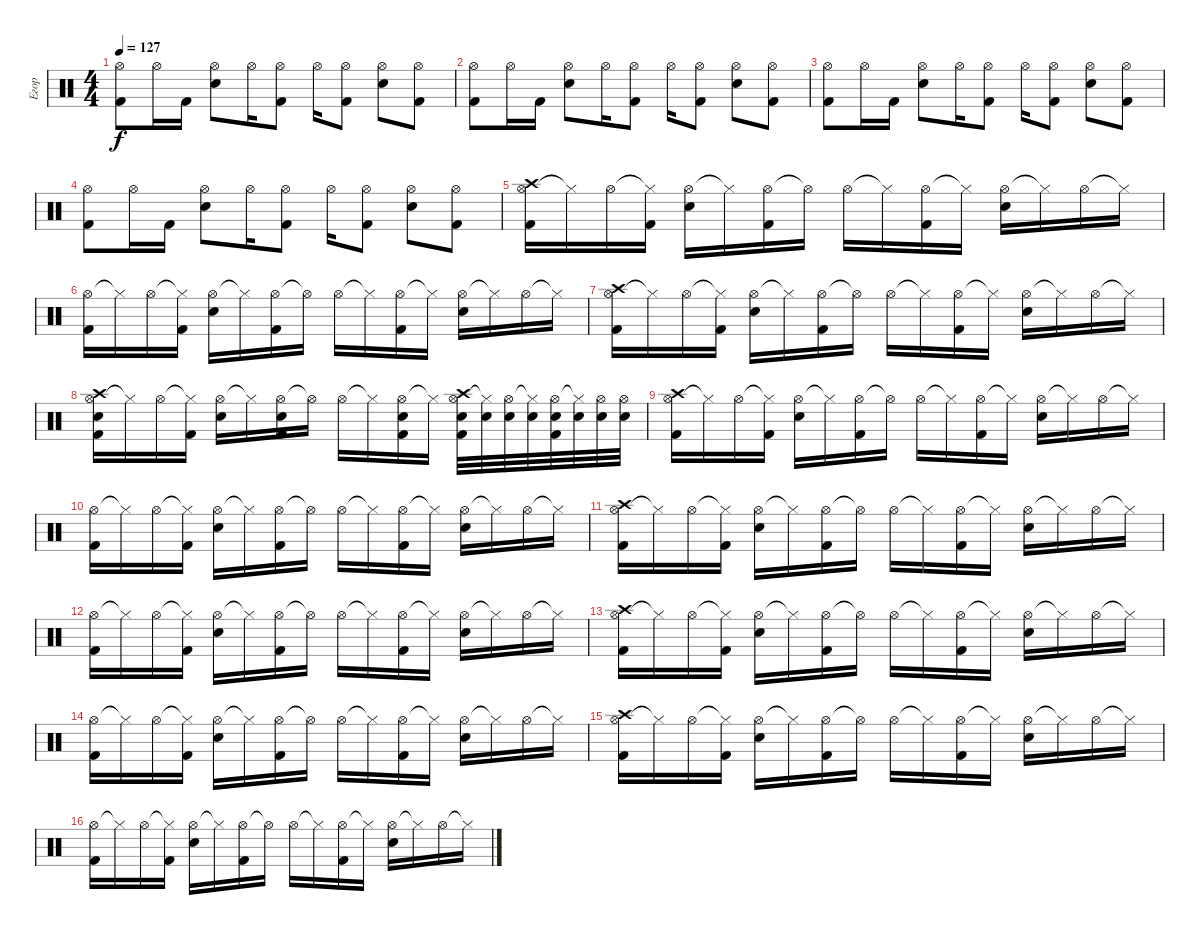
\track ("Егор" "Егор") {instrument percussion}
\staff {score}
\articulation defaults
\ts (4 4)
\tempo 127
\clef neutral
\ks c
("Hi-Hat (open)" "Kick (hit) 2").8{dy f} "Hi-Hat (open)".16 "Kick (hit) 2".16 ("Hi-Hat (open)" "Electric Snare (hit)").8 "Hi-Hat (open)".16 ("Hi-Hat (open)" "Kick (hit) 2").8 "Hi-Hat (open)".16 ("Hi-Hat (open)" "Kick (hit) 2").8 ("Hi-Hat (open)" "Electric Snare (hit)").8 ("Hi-Hat (open)" "Kick (hit) 2").8 |
("Hi-Hat (open)" "Kick (hit) 2").8 "Hi-Hat (open)".16 "Kick (hit) 2".16 ("Hi-Hat (open)" "Electric Snare (hit)").8 "Hi-Hat (open)".16 ("Hi-Hat (open)" "Kick (hit) 2").8 "Hi-Hat (open)".16 ("Hi-Hat (open)" "Kick (hit) 2").8 ("Hi-Hat (open)" "Electric Snare (hit)").8 ("Hi-Hat (open)" "Kick (hit) 2").8 |
("Hi-Hat (open)" "Kick (hit) 2").8 "Hi-Hat (open)".16 "Kick (hit) 2".16 ("Hi-Hat (open)" "Electric Snare (hit)").8 "Hi-Hat (open)".16 ("Hi-Hat (open)" "Kick (hit) 2").8 "Hi-Hat (open)".16 ("Hi-Hat (open)" "Kick (hit) 2").8 ("Hi-Hat (open)" "Electric Snare (hit)").8 ("Hi-Hat (open)" "Kick (hit) 2").8 |
("Hi-Hat (open)" "Kick (hit) 2").8 "Hi-Hat (open)".16 "Kick (hit) 2".16 ("Hi-Hat (open)" "Electric Snare (hit)").8 "Hi-Hat (open)".16 ("Hi-Hat (open)" "Kick (hit) 2").8 "Hi-Hat (open)".16 ("Hi-Hat (open)" "Kick (hit) 2").8 ("Hi-Hat (open)" "Electric Snare (hit)").8 ("Hi-Hat (open)" "Kick (hit) 2").8 |
("Hi-Hat (open)" "Crash high (hit)" "Kick (hit) 2").16 "Hi-Hat (closed)"{t}.16 "Hi-Hat (open)".16 ("Hi-Hat (closed)"{t} "Kick (hit) 2").16 ("Hi-Hat (open)" "Electric Snare (hit)").16 "Hi-Hat (closed)"{t}.16 ("Hi-Hat (open)" "Kick (hit) 2").16 "Hi-Hat (open)"{t}.16 "Hi-Hat (open)".16 "Hi-Hat (closed)"{t}.16 ("Hi-Hat (open)" "Kick (hit) 2").16 "Hi-Hat (closed)"{t}.16 ("Hi-Hat (open)" "Electric Snare (hit)").16 "Hi-Hat (closed)"{t}.16 "Hi-Hat (open)".16 "Hi-Hat (closed)"{t}.16 |
("Hi-Hat (open)" "Kick (hit) 2").16 "Hi-Hat (closed)"{t}.16 "Hi-Hat (open)".16 ("Hi-Hat (closed)"{t} "Kick (hit) 2").16 ("Hi-Hat (open)" "Electric Snare (hit)").16 "Hi-Hat (closed)"{t}.16 ("Hi-Hat (open)" "Kick (hit) 2").16 "Hi-Hat (open)"{t}.16 "Hi-Hat (open)".16 "Hi-Hat (closed)"{t}.16 ("Hi-Hat (open)" "Kick (hit) 2").16 "Hi-Hat (closed)"{t}.16 ("Hi-Hat (open)" "Electric Snare (hit)").16 "Hi-Hat (closed)"{t}.16 "Hi-Hat (open)".16 "Hi-Hat (closed)"{t}.16 |
("Hi-Hat (open)" "Crash high (hit)" "Kick (hit) 2").16 "Hi-Hat (closed)"{t}.16 "Hi-Hat (open)".16 ("Hi-Hat (closed)"{t} "Kick (hit) 2").16 ("Hi-Hat (open)" "Electric Snare (hit)").16 "Hi-Hat (closed)"{t}.16 ("Hi-Hat (open)" "Kick (hit) 2").16 "Hi-Hat (open)"{t}.16 "Hi-Hat (open)".16 "Hi-Hat (closed)"{t}.16 ("Hi-Hat (open)" "Kick (hit) 2").16 "Hi-Hat (closed)"{t}.16 ("Hi-Hat (open)" "Electric Snare (hit)").16 "Hi-Hat (closed)"{t}.16 "Hi-Hat (open)".16 "Hi-Hat (closed)"{t}.16 |
("Hi-Hat (open)" "Electric Snare (hit)" "Crash high (hit)" "Kick (hit) 2").16 "Hi-Hat (closed)"{t}.16 "Hi-Hat (open)".16 ("Hi-Hat (closed)"{t} "Kick (hit) 2").16 ("Hi-Hat (open)" "Electric Snare (hit)").16 "Hi-Hat (closed)"{t}.16 ("Hi-Hat (open)" "Electric Snare (hit)" "Kick (hit) 2").16 "Hi-Hat (open)"{t}.16 "Hi-Hat (open)".16 "Hi-Hat (closed)"{t}.16 ("Hi-Hat (open)" "Electric Snare (hit)" "Kick (hit) 2").16 "Hi-Hat (closed)"{t}.16 ("Hi-Hat (open)" "Crash high (hit)" "Electric Snare (hit)" "Kick (hit) 2").32 ("Hi-Hat (closed)"{t} "Electric Snare (hit)").32 ("Hi-Hat (open)" "Electric Snare (hit)").32 ("Hi-Hat (closed)"{t} "Electric Snare (hit)").32 ("Hi-Hat (open)" "Electric Snare (hit)" "Kick (hit) 2").32 ("Hi-Hat (closed)"{t} "Electric Snare (hit)").32 ("Hi-Hat (open)" "Electric Snare (hit)").32 ("Hi-Hat (open)" "Electric Snare (hit)").32 |
("Hi-Hat (open)" "Crash high (hit)" "Kick (hit) 2").16 "Hi-Hat (closed)"{t}.16 "Hi-Hat (open)".16 ("Hi-Hat (closed)"{t} "Kick (hit) 2").16 ("Hi-Hat (open)" "Electric Snare (hit)").16 "Hi-Hat (closed)"{t}.16 ("Hi-Hat (open)" "Kick (hit) 2").16 "Hi-Hat (open)"{t}.16 "Hi-Hat (open)".16 "Hi-Hat (closed)"{t}.16 ("Hi-Hat (open)" "Kick (hit) 2").16 "Hi-Hat (closed)"{t}.16 ("Hi-Hat (open)" "Electric Snare (hit)").16 "Hi-Hat (closed)"{t}.16 "Hi-Hat (open)".16 "Hi-Hat (closed)"{t}.16 |
("Hi-Hat (open)" "Kick (hit) 2").16 "Hi-Hat (closed)"{t}.16 "Hi-Hat (open)".16 ("Hi-Hat (closed)"{t} "Kick (hit) 2").16 ("Hi-Hat (open)" "Electric Snare (hit)").16 "Hi-Hat (closed)"{t}.16 ("Hi-Hat (open)" "Kick (hit) 2").16 "Hi-Hat (open)"{t}.16 "Hi-Hat (open)".16 "Hi-Hat (closed)"{t}.16 ("Hi-Hat (open)" "Kick (hit) 2").16 "Hi-Hat (closed)"{t}.16 ("Hi-Hat (open)" "Electric Snare (hit)").16 "Hi-Hat (closed)"{t}.16 "Hi-Hat (open)".16 "Hi-Hat (closed)"{t}.16 |
("Hi-Hat (open)" "Crash high (hit)" "Kick (hit) 2").16 "Hi-Hat (closed)"{t}.16 "Hi-Hat (open)".16 ("Hi-Hat (closed)"{t} "Kick (hit) 2").16 ("Hi-Hat (open)" "Electric Snare (hit)").16 "Hi-Hat (closed)"{t}.16 ("Hi-Hat (open)" "Kick (hit) 2").16 "Hi-Hat (open)"{t}.16 "Hi-Hat (open)".16 "Hi-Hat (closed)"{t}.16 ("Hi-Hat (open)" "Kick (hit) 2").16 "Hi-Hat (closed)"{t}.16 ("Hi-Hat (open)" "Electric Snare (hit)").16 "Hi-Hat (closed)"{t}.16 "Hi-Hat (open)".16 "Hi-Hat (closed)"{t}.16 |
("Hi-Hat (open)" "Kick (hit) 2").16 "Hi-Hat (closed)"{t}.16 "Hi-Hat (open)".16 ("Hi-Hat (closed)"{t} "Kick (hit) 2").16 ("Hi-Hat (open)" "Electric Snare (hit)").16 "Hi-Hat (closed)"{t}.16 ("Hi-Hat (open)" "Kick (hit) 2").16 "Hi-Hat (open)"{t}.16 "Hi-Hat (open)".16 "Hi-Hat (closed)"{t}.16 ("Hi-Hat (open)" "Kick (hit) 2").16 "Hi-Hat (closed)"{t}.16 ("Hi-Hat (open)" "Electric Snare (hit)").16 "Hi-Hat (closed)"{t}.16 "Hi-Hat (open)".16 "Hi-Hat (closed)"{t}.16 |
("Hi-Hat (open)" "Crash high (hit)" "Kick (hit) 2").16 "Hi-Hat (closed)"{t}.16 "Hi-Hat (open)".16 ("Hi-Hat (closed)"{t} "Kick (hit) 2").16 ("Hi-Hat (open)" "Electric Snare (hit)").16 "Hi-Hat (closed)"{t}.16 ("Hi-Hat (open)" "Kick (hit) 2").16 "Hi-Hat (open)"{t}.16 "Hi-Hat (open)".16 "Hi-Hat (closed)"{t}.16 ("Hi-Hat (open)" "Kick (hit) 2").16 "Hi-Hat (closed)"{t}.16 ("Hi-Hat (open)" "Electric Snare (hit)").16 "Hi-Hat (closed)"{t}.16 "Hi-Hat (open)".16 "Hi-Hat (closed)"{t}.16 |
("Hi-Hat (open)" "Kick (hit) 2").16 "Hi-Hat (closed)"{t}.16 "Hi-Hat (open)".16 ("Hi-Hat (closed)"{t} "Kick (hit) 2").16 ("Hi-Hat (open)" "Electric Snare (hit)").16 "Hi-Hat (closed)"{t}.16 ("Hi-Hat (open)" "Kick (hit) 2").16 "Hi-Hat (open)"{t}.16 "Hi-Hat (open)".16 "Hi-Hat (closed)"{t}.16 ("Hi-Hat (open)" "Kick (hit) 2").16 "Hi-Hat (closed)"{t}.16 ("Hi-Hat (open)" "Electric Snare (hit)").16 "Hi-Hat (closed)"{t}.16 "Hi-Hat (open)".16 "Hi-Hat (closed)"{t}.16 |
("Hi-Hat (open)" "Crash high (hit)" "Kick (hit) 2").16 "Hi-Hat (closed)"{t}.16 "Hi-Hat (open)".16 ("Hi-Hat (closed)"{t} "Kick (hit) 2").16 ("Hi-Hat (open)" "Electric Snare (hit)").16 "Hi-Hat (closed)"{t}.16 ("Hi-Hat (open)" "Kick (hit) 2").16 "Hi-Hat (open)"{t}.16 "Hi-Hat (open)".16 "Hi-Hat (closed)"{t}.16 ("Hi-Hat (open)" "Kick (hit) 2").16 "Hi-Hat (closed)"{t}.16 ("Hi-Hat (open)" "Electric Snare (hit)").16 "Hi-Hat (closed)"{t}.16 "Hi-Hat (open)".16 "Hi-Hat (closed)"{t}.16 |
("Hi-Hat (open)" "Kick (hit) 2").16 "Hi-Hat (closed)"{t}.16 "Hi-Hat (open)".16 ("Hi-Hat (closed)"{t} "Kick (hit) 2").16 ("Hi-Hat (open)" "Electric Snare (hit)").16 "Hi-Hat (closed)"{t}.16 ("Hi-Hat (open)" "Kick (hit) 2").16 "Hi-Hat (open)"{t}.16 "Hi-Hat (open)".16 "Hi-Hat (closed)"{t}.16 ("Hi-Hat (open)" "Kick (hit) 2").16 "Hi-Hat (closed)"{t}.16 ("Hi-Hat (open)" "Electric Snare (hit)").16 "Hi-Hat (closed)"{t}.16 "Hi-Hat (open)".16 "Hi-Hat (closed)"{t}.16
